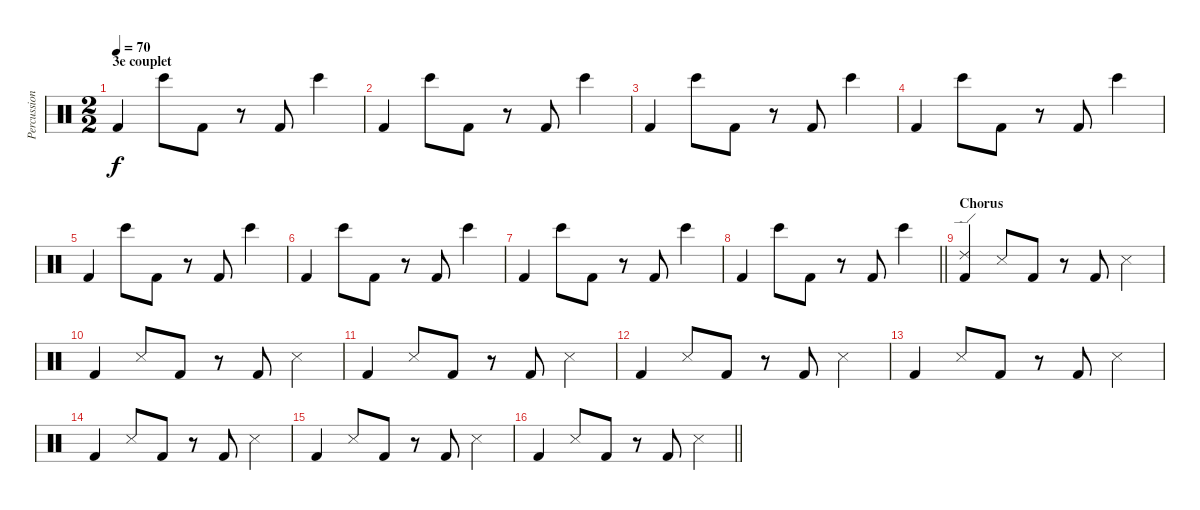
\track ("Percussions" "Percussion") {instrument percussion}
\staff {score}
\articulation defaults
\ts (2 2)
\section ("" "3e couplet")
\tempo 70
\clef neutral
\ks c "Kick (hit) 2".4{dy f} "Bongo High (hit)".8 "Kick (hit) 2".8
r.8 "Kick (hit) 2".8 "Bongo High (hit)".4 |
"Kick (hit) 2".4 "Bongo High (hit)".8 "Kick (hit) 2".8 r.8 "Kick (hit) 2".8 "Bongo High (hit)".4 |
"Kick (hit) 2".4 "Bongo High (hit)".8 "Kick (hit) 2".8 r.8 "Kick (hit) 2".8 "Bongo High (hit)".4 |
"Kick (hit) 2".4 "Bongo High (hit)".8 "Kick (hit) 2".8 r.8 "Kick (hit) 2".8 "Bongo High (hit)".4 |
"Kick (hit) 2".4 "Bongo High (hit)".8 "Kick (hit) 2".8 r.8 "Kick (hit) 2".8 "Bongo High (hit)".4 |
"Kick (hit) 2".4 "Bongo High (hit)".8 "Kick (hit) 2".8 r.8 "Kick (hit) 2".8 "Bongo High (hit)".4 |
"Kick (hit) 2".4 "Bongo High (hit)".8 "Kick (hit) 2".8 r.8 "Kick (hit) 2".8 "Bongo High (hit)".4 |
\barLineRight lightlight "Kick (hit) 2".4 "Bongo High (hit)".8 "Kick (hit) 2".8
r.8 "Kick (hit) 2".8 "Bongo High (hit)".4 |
\section ("" "Chorus")
("Ride (edge) 2" "Kick (hit) 2").4 "Snare (side stick) 3".8 "Kick (hit) 2".8 r.8 "Kick (hit) 2".8 "Snare (side stick) 3".4 |
"Kick (hit) 2".4 "Snare (side stick) 3".8 "Kick (hit) 2".8 r.8 "Kick (hit) 2".8 "Snare (side stick) 3".4 |
"Kick (hit) 2".4 "Snare (side stick) 3".8 "Kick (hit) 2".8 r.8 "Kick (hit) 2".8 "Snare (side stick) 3".4 |
"Kick (hit) 2".4 "Snare (side stick) 3".8 "Kick (hit) 2".8 r.8 "Kick (hit) 2".8 "Snare (side stick) 3".4 |
"Kick (hit) 2".4 "Snare (side stick) 3".8 "Kick (hit) 2".8 r.8 "Kick (hit) 2".8 "Snare (side stick) 3".4 |
"Kick (hit) 2".4 "Snare (side stick) 3".8 "Kick (hit) 2".8 r.8 "Kick (hit) 2".8 "Snare (side stick) 3".4 |
"Kick (hit) 2".4 "Snare (side stick) 3".8 "Kick (hit) 2".8 r.8 "Kick (hit) 2".8 "Snare (side stick) 3".4 |
\barLineRight lightlight "Kick (hit) 2".4 "Snare (side stick) 3".8 "Kick (hit) 2".8
r.8 "Kick (hit) 2".8 "Snare (side stick) 3".4
